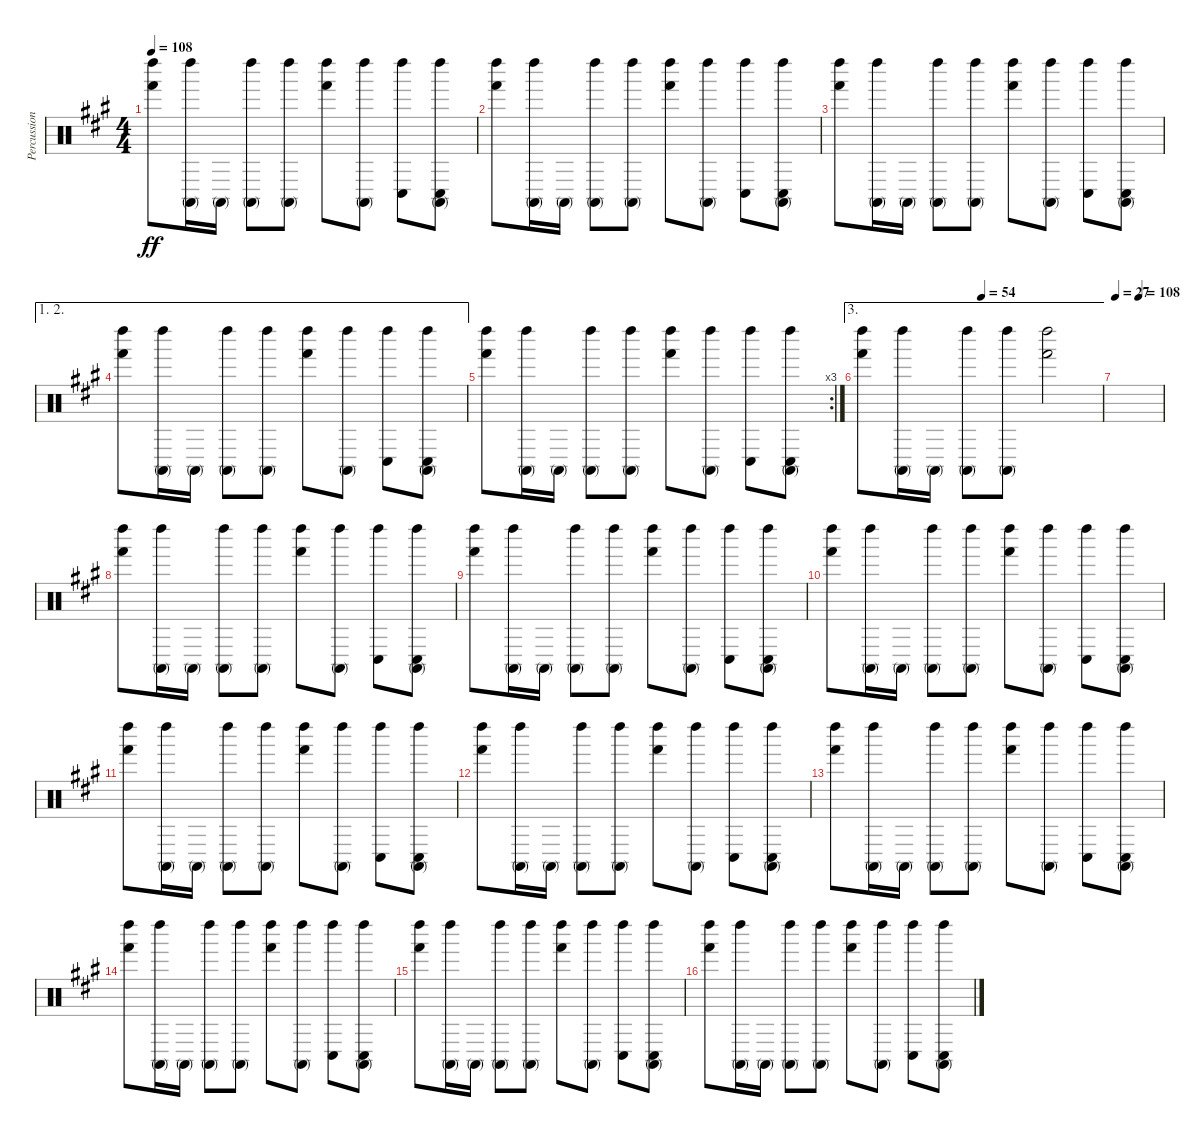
\track ("Percussions" "Percussion") {instrument percussion}
\staff {score}
\articulation defaults
\ts (4 4)
\tempo 108
\clef neutral
\ks f#minor
("Hand (hit)" "Left Maraca (hit)").8{dy ff} ("Left Maraca (hit)" "Conga high (mute)").16 "Conga high (mute)".16 ("Left Maraca (hit)" "Conga high (mute)").8 ("Left Maraca (hit)" "Conga high (mute)").8 ("Left Maraca (hit)" "Hand (hit)").8 ("Left Maraca (hit)" "Conga high (mute)").8 ("Left Maraca (hit)" "Conga low (hit)").8 ("Left Maraca (hit)" "Conga high (mute)" "Conga low (hit)").8 |
("Hand (hit)" "Left Maraca (hit)").8 ("Left Maraca (hit)" "Conga high (mute)").16 "Conga high (mute)".16 ("Left Maraca (hit)" "Conga high (mute)").8 ("Left Maraca (hit)" "Conga high (mute)").8 ("Left Maraca (hit)" "Hand (hit)").8 ("Left Maraca (hit)" "Conga high (mute)").8 ("Left Maraca (hit)" "Conga low (hit)").8 ("Left Maraca (hit)" "Conga high (mute)" "Conga low (hit)").8 |
("Hand (hit)" "Left Maraca (hit)").8 ("Left Maraca (hit)" "Conga high (mute)").16 "Conga high (mute)".16 ("Left Maraca (hit)" "Conga high (mute)").8 ("Left Maraca (hit)" "Conga high (mute)").8 ("Left Maraca (hit)" "Hand (hit)").8 ("Left Maraca (hit)" "Conga high (mute)").8 ("Left Maraca (hit)" "Conga low (hit)").8 ("Left Maraca (hit)" "Conga high (mute)" "Conga low (hit)").8 |
\ae (1 2)
("Hand (hit)" "Left Maraca (hit)").8 ("Left Maraca (hit)" "Conga high (mute)").16 "Conga high (mute)".16 ("Left Maraca (hit)" "Conga high (mute)").8 ("Left Maraca (hit)" "Conga high (mute)").8 ("Left Maraca (hit)" "Hand (hit)").8 ("Left Maraca (hit)" "Conga high (mute)").8 ("Left Maraca (hit)" "Conga low (hit)").8 ("Left Maraca (hit)" "Conga high (mute)" "Conga low (hit)").8 |
\rc 3
("Hand (hit)" "Left Maraca (hit)").8 ("Left Maraca (hit)" "Conga high (mute)").16 "Conga high (mute)".16 ("Left Maraca (hit)" "Conga high (mute)").8 ("Left Maraca (hit)" "Conga high (mute)").8 ("Left Maraca (hit)" "Hand (hit)").8 ("Left Maraca (hit)" "Conga high (mute)").8 ("Left Maraca (hit)" "Conga low (hit)").8 ("Left Maraca (hit)" "Conga high (mute)" "Conga low (hit)").8 |
\ae 3
\tempo (54 0.5)
("Hand (hit)" "Left Maraca (hit)").8 ("Left Maraca (hit)" "Conga high (mute)").16 "Conga high (mute)".16 ("Left Maraca (hit)" "Conga high (mute)").8 ("Left Maraca (hit)" "Conga high (mute)").8 ("Left Maraca (hit)" "Hand (hit)").2 |
\tempo 27
\tempo (108 0.5)
|
("Hand (hit)" "Left Maraca (hit)").8 ("Left Maraca (hit)" "Conga high (mute)").16 "Conga high (mute)".16 ("Left Maraca (hit)" "Conga high (mute)").8 ("Left Maraca (hit)" "Conga high (mute)").8 ("Left Maraca (hit)" "Hand (hit)").8 ("Left Maraca (hit)" "Conga high (mute)").8 ("Left Maraca (hit)" "Conga low (hit)").8 ("Left Maraca (hit)" "Conga high (mute)" "Conga low (hit)").8 |
("Hand (hit)" "Left Maraca (hit)").8 ("Left Maraca (hit)" "Conga high (mute)").16 "Conga high (mute)".16 ("Left Maraca (hit)" "Conga high (mute)").8 ("Left Maraca (hit)" "Conga high (mute)").8 ("Left Maraca (hit)" "Hand (hit)").8 ("Left Maraca (hit)" "Conga high (mute)").8 ("Left Maraca (hit)" "Conga low (hit)").8 ("Left Maraca (hit)" "Conga high (mute)" "Conga low (hit)").8 |
("Hand (hit)" "Left Maraca (hit)").8 ("Left Maraca (hit)" "Conga high (mute)").16 "Conga high (mute)".16 ("Left Maraca (hit)" "Conga high (mute)").8 ("Left Maraca (hit)" "Conga high (mute)").8 ("Left Maraca (hit)" "Hand (hit)").8 ("Left Maraca (hit)" "Conga high (mute)").8 ("Left Maraca (hit)" "Conga low (hit)").8 ("Left Maraca (hit)" "Conga high (mute)" "Conga low (hit)").8 |
("Hand (hit)" "Left Maraca (hit)").8 ("Left Maraca (hit)" "Conga high (mute)").16 "Conga high (mute)".16 ("Left Maraca (hit)" "Conga high (mute)").8 ("Left Maraca (hit)" "Conga high (mute)").8 ("Left Maraca (hit)" "Hand (hit)").8 ("Left Maraca (hit)" "Conga high (mute)").8 ("Left Maraca (hit)" "Conga low (hit)").8 ("Left Maraca (hit)" "Conga high (mute)" "Conga low (hit)").8 |
("Hand (hit)" "Left Maraca (hit)").8 ("Left Maraca (hit)" "Conga high (mute)").16 "Conga high (mute)".16 ("Left Maraca (hit)" "Conga high (mute)").8 ("Left Maraca (hit)" "Conga high (mute)").8 ("Left Maraca (hit)" "Hand (hit)").8 ("Left Maraca (hit)" "Conga high (mute)").8 ("Left Maraca (hit)" "Conga low (hit)").8 ("Left Maraca (hit)" "Conga high (mute)" "Conga low (hit)").8 |
("Hand (hit)" "Left Maraca (hit)").8 ("Left Maraca (hit)" "Conga high (mute)").16 "Conga high (mute)".16 ("Left Maraca (hit)" "Conga high (mute)").8 ("Left Maraca (hit)" "Conga high (mute)").8 ("Left Maraca (hit)" "Hand (hit)").8 ("Left Maraca (hit)" "Conga high (mute)").8 ("Left Maraca (hit)" "Conga low (hit)").8 ("Left Maraca (hit)" "Conga high (mute)" "Conga low (hit)").8 |
("Hand (hit)" "Left Maraca (hit)").8 ("Left Maraca (hit)" "Conga high (mute)").16 "Conga high (mute)".16 ("Left Maraca (hit)" "Conga high (mute)").8 ("Left Maraca (hit)" "Conga high (mute)").8 ("Left Maraca (hit)" "Hand (hit)").8 ("Left Maraca (hit)" "Conga high (mute)").8 ("Left Maraca (hit)" "Conga low (hit)").8 ("Left Maraca (hit)" "Conga high (mute)" "Conga low (hit)").8 |
("Hand (hit)" "Left Maraca (hit)").8 ("Left Maraca (hit)" "Conga high (mute)").16 "Conga high (mute)".16 ("Left Maraca (hit)" "Conga high (mute)").8 ("Left Maraca (hit)" "Conga high (mute)").8 ("Left Maraca (hit)" "Hand (hit)").8 ("Left Maraca (hit)" "Conga high (mute)").8 ("Left Maraca (hit)" "Conga low (hit)").8 ("Left Maraca (hit)" "Conga high (mute)" "Conga low (hit)").8 |
("Hand (hit)" "Left Maraca (hit)").8 ("Left Maraca (hit)" "Conga high (mute)").16 "Conga high (mute)".16 ("Left Maraca (hit)" "Conga high (mute)").8 ("Left Maraca (hit)" "Conga high (mute)").8 ("Left Maraca (hit)" "Hand (hit)").8 ("Left Maraca (hit)" "Conga high (mute)").8 ("Left Maraca (hit)" "Conga low (hit)").8 ("Left Maraca (hit)" "Conga high (mute)" "Conga low (hit)").8
